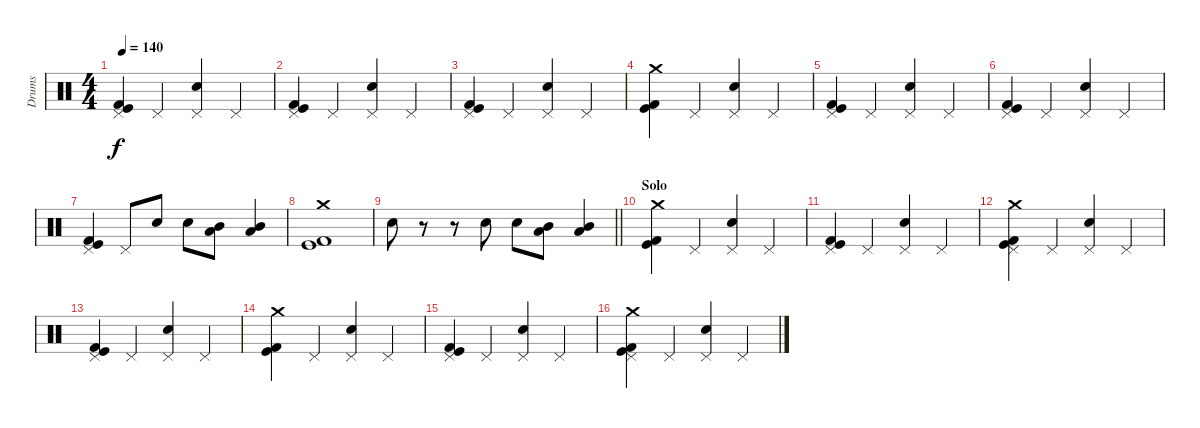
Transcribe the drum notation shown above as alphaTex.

\track ("Drums" "Drums") {instrument percussion}
\staff {score}
\articulation defaults
\ts (4 4)
\tempo 140
\clef neutral
\ks c
("Kick (hit) 2" "Kick (hit)" "Pedal Hi-Hat (hit)").4{dy f} "Pedal Hi-Hat (hit)".4 ("Pedal Hi-Hat (hit)" "Snare (hit) 2").4 "Pedal Hi-Hat (hit)".4 |
("Kick (hit) 2" "Kick (hit)" "Pedal Hi-Hat (hit)").4 "Pedal Hi-Hat (hit)".4 ("Pedal Hi-Hat (hit)" "Snare (hit) 2").4 "Pedal Hi-Hat (hit)".4 |
("Kick (hit) 2" "Kick (hit)" "Pedal Hi-Hat (hit)").4 "Pedal Hi-Hat (hit)".4 ("Pedal Hi-Hat (hit)" "Snare (hit) 2").4 "Pedal Hi-Hat (hit)".4 |
("Kick (hit) 2" "Kick (hit)" "Crash medium (hit)").4 "Pedal Hi-Hat (hit)".4 ("Pedal Hi-Hat (hit)" "Snare (hit) 2").4 "Pedal Hi-Hat (hit)".4 |
("Kick (hit) 2" "Kick (hit)" "Pedal Hi-Hat (hit)").4 "Pedal Hi-Hat (hit)".4 ("Pedal Hi-Hat (hit)" "Snare (hit) 2").4 "Pedal Hi-Hat (hit)".4 |
("Kick (hit) 2" "Kick (hit)" "Pedal Hi-Hat (hit)").4 "Pedal Hi-Hat (hit)".4 ("Pedal Hi-Hat (hit)" "Snare (hit) 2").4 "Pedal Hi-Hat (hit)".4 |
("Kick (hit) 2" "Kick (hit)" "Pedal Hi-Hat (hit)").4 "Pedal Hi-Hat (hit)".8 "Snare (hit) 2".8 "Snare (hit) 2".8 ("Low Tom (hit)" "Mid Tom (hit)").8 ("Low Tom (hit)" "Mid Tom (hit)").4 |
("Crash medium (hit)" "Kick (hit) 2" "Kick (hit)").1 |
\barLineRight lightlight "Snare (hit) 2".8
r.8 r.8 "Snare (hit) 2".8 "Snare (hit) 2".8 ("Mid Tom (hit)" "Low Tom (hit)").8 ("Mid Tom (hit)" "Low Tom (hit)").4 |
\section ("" "Solo")
("Kick (hit) 2" "Kick (hit)" "Crash medium (hit)").4 "Pedal Hi-Hat (hit)".4 ("Pedal Hi-Hat (hit)" "Snare (hit) 2").4 "Pedal Hi-Hat (hit)".4 |
("Kick (hit) 2" "Kick (hit)" "Pedal Hi-Hat (hit)").4 "Pedal Hi-Hat (hit)".4 ("Pedal Hi-Hat (hit)" "Snare (hit) 2").4 "Pedal Hi-Hat (hit)".4 |
("Kick (hit) 2" "Kick (hit)" "Pedal Hi-Hat (hit)" "Crash medium (hit)").4 "Pedal Hi-Hat (hit)".4 ("Pedal Hi-Hat (hit)" "Snare (hit) 2").4 "Pedal Hi-Hat (hit)".4 |
("Kick (hit) 2" "Kick (hit)" "Pedal Hi-Hat (hit)").4 "Pedal Hi-Hat (hit)".4 ("Pedal Hi-Hat (hit)" "Snare (hit) 2").4 "Pedal Hi-Hat (hit)".4 |
("Kick (hit) 2" "Kick (hit)" "Crash medium (hit)").4 "Pedal Hi-Hat (hit)".4 ("Pedal Hi-Hat (hit)" "Snare (hit) 2").4 "Pedal Hi-Hat (hit)".4 |
("Kick (hit) 2" "Kick (hit)" "Pedal Hi-Hat (hit)").4 "Pedal Hi-Hat (hit)".4 ("Pedal Hi-Hat (hit)" "Snare (hit) 2").4 "Pedal Hi-Hat (hit)".4 |
("Kick (hit) 2" "Kick (hit)" "Pedal Hi-Hat (hit)" "Crash medium (hit)").4 "Pedal Hi-Hat (hit)".4 ("Pedal Hi-Hat (hit)" "Snare (hit) 2").4 "Pedal Hi-Hat (hit)".4
